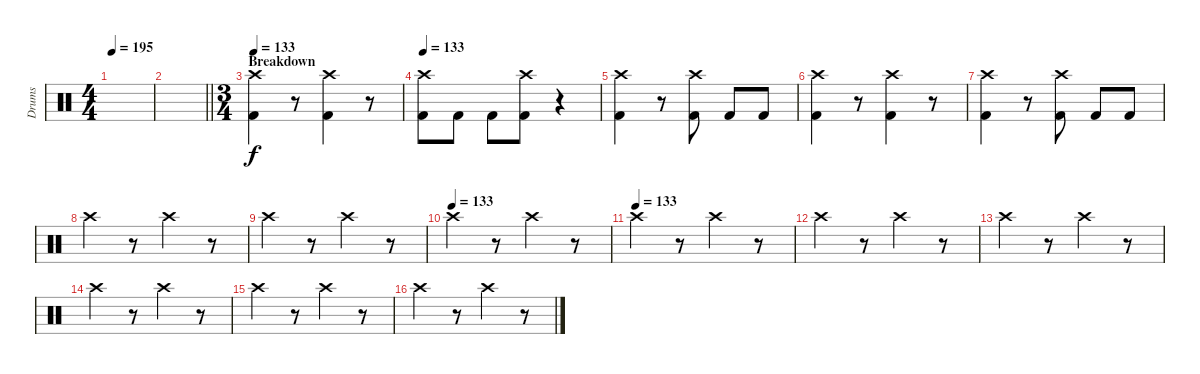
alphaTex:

\track ("Drums" "Drums") {instrument percussion}
\staff {score}
\articulation defaults
\ts (4 4)
\tempo 195
\clef neutral
\ks c
|
\barLineRight lightlight
|
\ts (3 4)
\section ("" "Breakdown")
\tempo 133
("Crash high (hit)" "Kick (hit) 2").4 r.8 ("Crash high (hit)" "Kick (hit) 2").4 r.8 |
\tempo 133
("Crash high (hit)" "Kick (hit) 2").8 "Kick (hit) 2".8 "Kick (hit) 2".8 ("Crash high (hit)" "Kick (hit) 2").8 r.4 |
("Crash high (hit)" "Kick (hit) 2").4 r.8 ("Crash high (hit)" "Kick (hit) 2").8 "Kick (hit) 2".8 "Kick (hit) 2".8 |
("Crash high (hit)" "Kick (hit) 2").4 r.8 ("Crash high (hit)" "Kick (hit) 2").4 r.8 |
("Crash high (hit)" "Kick (hit) 2").4 r.8 ("Crash high (hit)" "Kick (hit) 2").8 "Kick (hit) 2".8 "Kick (hit) 2".8 |
"Crash high (hit)".4 r.8 "Crash high (hit)".4 r.8 |
"Crash high (hit)".4 r.8 "Crash high (hit)".4 r.8 |
\tempo (133)
"Crash high (hit)".4 r.8 "Crash high (hit)".4 r.8 |
\tempo (133)
"Crash high (hit)".4 r.8 "Crash high (hit)".4 r.8 |
"Crash high (hit)".4 r.8 "Crash high (hit)".4 r.8 |
"Crash high (hit)".4 r.8 "Crash high (hit)".4 r.8 |
"Crash high (hit)".4 r.8 "Crash high (hit)".4 r.8 |
"Crash high (hit)".4 r.8 "Crash high (hit)".4 r.8 |
"Crash high (hit)".4 r.8 "Crash high (hit)".4 r.8
